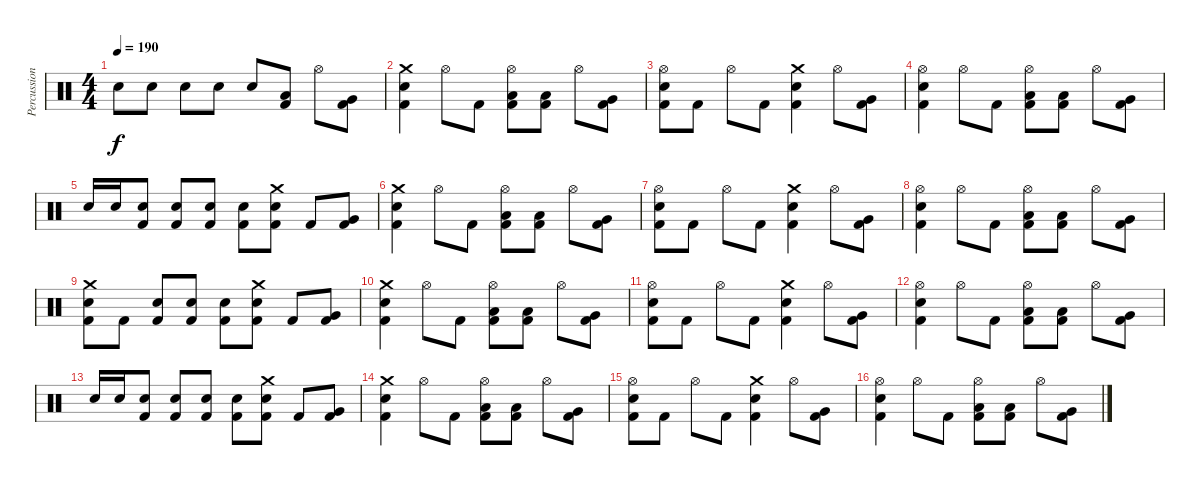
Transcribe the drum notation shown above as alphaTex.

\track ("Percussion" "Percussion") {instrument percussion}
\staff {score}
\articulation defaults
\ts (4 4)
\tempo 190
\clef neutral
\ks c "Snare (hit) 2".8{dy f} "Snare (hit) 2".8 "Snare (hit) 2".8 "Snare (hit) 2".8 "Snare (hit) 2".8
("Low Floor Tom (hit)" "Kick (hit) 2").8 "Hi-Hat (open)".8 ("Very Low Tom (hit)" "Kick (hit) 2").8 |
("Crash medium (hit)" "Snare (hit) 2" "Kick (hit) 2").4 "Hi-Hat (open)".8 "Kick (hit) 2".8 ("Hi-Hat (open)" "Low Floor Tom (hit)" "Kick (hit) 2").8 ("Low Floor Tom (hit)" "Kick (hit) 2").8 "Hi-Hat (open)".8 ("Very Low Tom (hit)" "Kick (hit) 2").8 |
("Hi-Hat (open)" "Snare (hit) 2" "Kick (hit) 2").8 "Kick (hit) 2".8 "Hi-Hat (open)".8 "Kick (hit) 2".8 ("Crash medium (hit)" "Snare (hit) 2" "Kick (hit) 2").4 "Hi-Hat (open)".8 ("Very Low Tom (hit)" "Kick (hit) 2").8 |
("Hi-Hat (open)" "Snare (hit) 2" "Kick (hit) 2").4 "Hi-Hat (open)".8 "Kick (hit) 2".8 ("Hi-Hat (open)" "Low Floor Tom (hit)" "Kick (hit) 2").8 ("Low Floor Tom (hit)" "Kick (hit) 2").8 "Hi-Hat (open)".8 ("Very Low Tom (hit)" "Kick (hit) 2").8 |
"Snare (hit) 2".16 "Snare (hit) 2".16 ("Snare (hit) 2" "Kick (hit) 2").8 ("Snare (hit) 2" "Kick (hit) 2").8 ("Snare (hit) 2" "Kick (hit) 2").8 ("Snare (hit) 2" "Kick (hit) 2").8 ("Crash medium (hit)" "Snare (hit) 2" "Kick (hit) 2").8 "Kick (hit) 2".8 ("Very Low Tom (hit)" "Kick (hit) 2").8 |
("Crash medium (hit)" "Snare (hit) 2" "Kick (hit) 2").4 "Hi-Hat (open)".8 "Kick (hit) 2".8 ("Hi-Hat (open)" "Low Floor Tom (hit)" "Kick (hit) 2").8 ("Low Floor Tom (hit)" "Kick (hit) 2").8 "Hi-Hat (open)".8 ("Very Low Tom (hit)" "Kick (hit) 2").8 |
("Hi-Hat (open)" "Snare (hit) 2" "Kick (hit) 2").8 "Kick (hit) 2".8 "Hi-Hat (open)".8 "Kick (hit) 2".8 ("Crash medium (hit)" "Snare (hit) 2" "Kick (hit) 2").4 "Hi-Hat (open)".8 ("Very Low Tom (hit)" "Kick (hit) 2").8 |
("Hi-Hat (open)" "Snare (hit) 2" "Kick (hit) 2").4 "Hi-Hat (open)".8 "Kick (hit) 2".8 ("Hi-Hat (open)" "Low Floor Tom (hit)" "Kick (hit) 2").8 ("Low Floor Tom (hit)" "Kick (hit) 2").8 "Hi-Hat (open)".8 ("Very Low Tom (hit)" "Kick (hit) 2").8 |
("Crash medium (hit)" "Snare (hit) 2" "Kick (hit) 2").8 "Kick (hit) 2".8 ("Snare (hit) 2" "Kick (hit) 2").8 ("Snare (hit) 2" "Kick (hit) 2").8 ("Snare (hit) 2" "Kick (hit) 2").8 ("Crash medium (hit)" "Snare (hit) 2" "Kick (hit) 2").8 "Kick (hit) 2".8 ("Very Low Tom (hit)" "Kick (hit) 2").8 |
("Crash medium (hit)" "Snare (hit) 2" "Kick (hit) 2").4 "Hi-Hat (open)".8 "Kick (hit) 2".8 ("Hi-Hat (open)" "Low Floor Tom (hit)" "Kick (hit) 2").8 ("Low Floor Tom (hit)" "Kick (hit) 2").8 "Hi-Hat (open)".8 ("Very Low Tom (hit)" "Kick (hit) 2").8 |
("Hi-Hat (open)" "Snare (hit) 2" "Kick (hit) 2").8 "Kick (hit) 2".8 "Hi-Hat (open)".8 "Kick (hit) 2".8 ("Crash medium (hit)" "Snare (hit) 2" "Kick (hit) 2").4 "Hi-Hat (open)".8 ("Very Low Tom (hit)" "Kick (hit) 2").8 |
("Hi-Hat (open)" "Snare (hit) 2" "Kick (hit) 2").4 "Hi-Hat (open)".8 "Kick (hit) 2".8 ("Hi-Hat (open)" "Low Floor Tom (hit)" "Kick (hit) 2").8 ("Low Floor Tom (hit)" "Kick (hit) 2").8 "Hi-Hat (open)".8 ("Very Low Tom (hit)" "Kick (hit) 2").8 |
"Snare (hit) 2".16 "Snare (hit) 2".16 ("Snare (hit) 2" "Kick (hit) 2").8 ("Snare (hit) 2" "Kick (hit) 2").8 ("Snare (hit) 2" "Kick (hit) 2").8 ("Snare (hit) 2" "Kick (hit) 2").8 ("Crash medium (hit)" "Snare (hit) 2" "Kick (hit) 2").8 "Kick (hit) 2".8 ("Very Low Tom (hit)" "Kick (hit) 2").8 |
("Crash medium (hit)" "Snare (hit) 2" "Kick (hit) 2").4 "Hi-Hat (open)".8 "Kick (hit) 2".8 ("Hi-Hat (open)" "Low Floor Tom (hit)" "Kick (hit) 2").8 ("Low Floor Tom (hit)" "Kick (hit) 2").8 "Hi-Hat (open)".8 ("Very Low Tom (hit)" "Kick (hit) 2").8 |
("Hi-Hat (open)" "Snare (hit) 2" "Kick (hit) 2").8 "Kick (hit) 2".8 "Hi-Hat (open)".8 "Kick (hit) 2".8 ("Crash medium (hit)" "Snare (hit) 2" "Kick (hit) 2").4 "Hi-Hat (open)".8 ("Very Low Tom (hit)" "Kick (hit) 2").8 |
("Hi-Hat (open)" "Snare (hit) 2" "Kick (hit) 2").4 "Hi-Hat (open)".8 "Kick (hit) 2".8 ("Hi-Hat (open)" "Low Floor Tom (hit)" "Kick (hit) 2").8 ("Low Floor Tom (hit)" "Kick (hit) 2").8 "Hi-Hat (open)".8 ("Very Low Tom (hit)" "Kick (hit) 2").8
